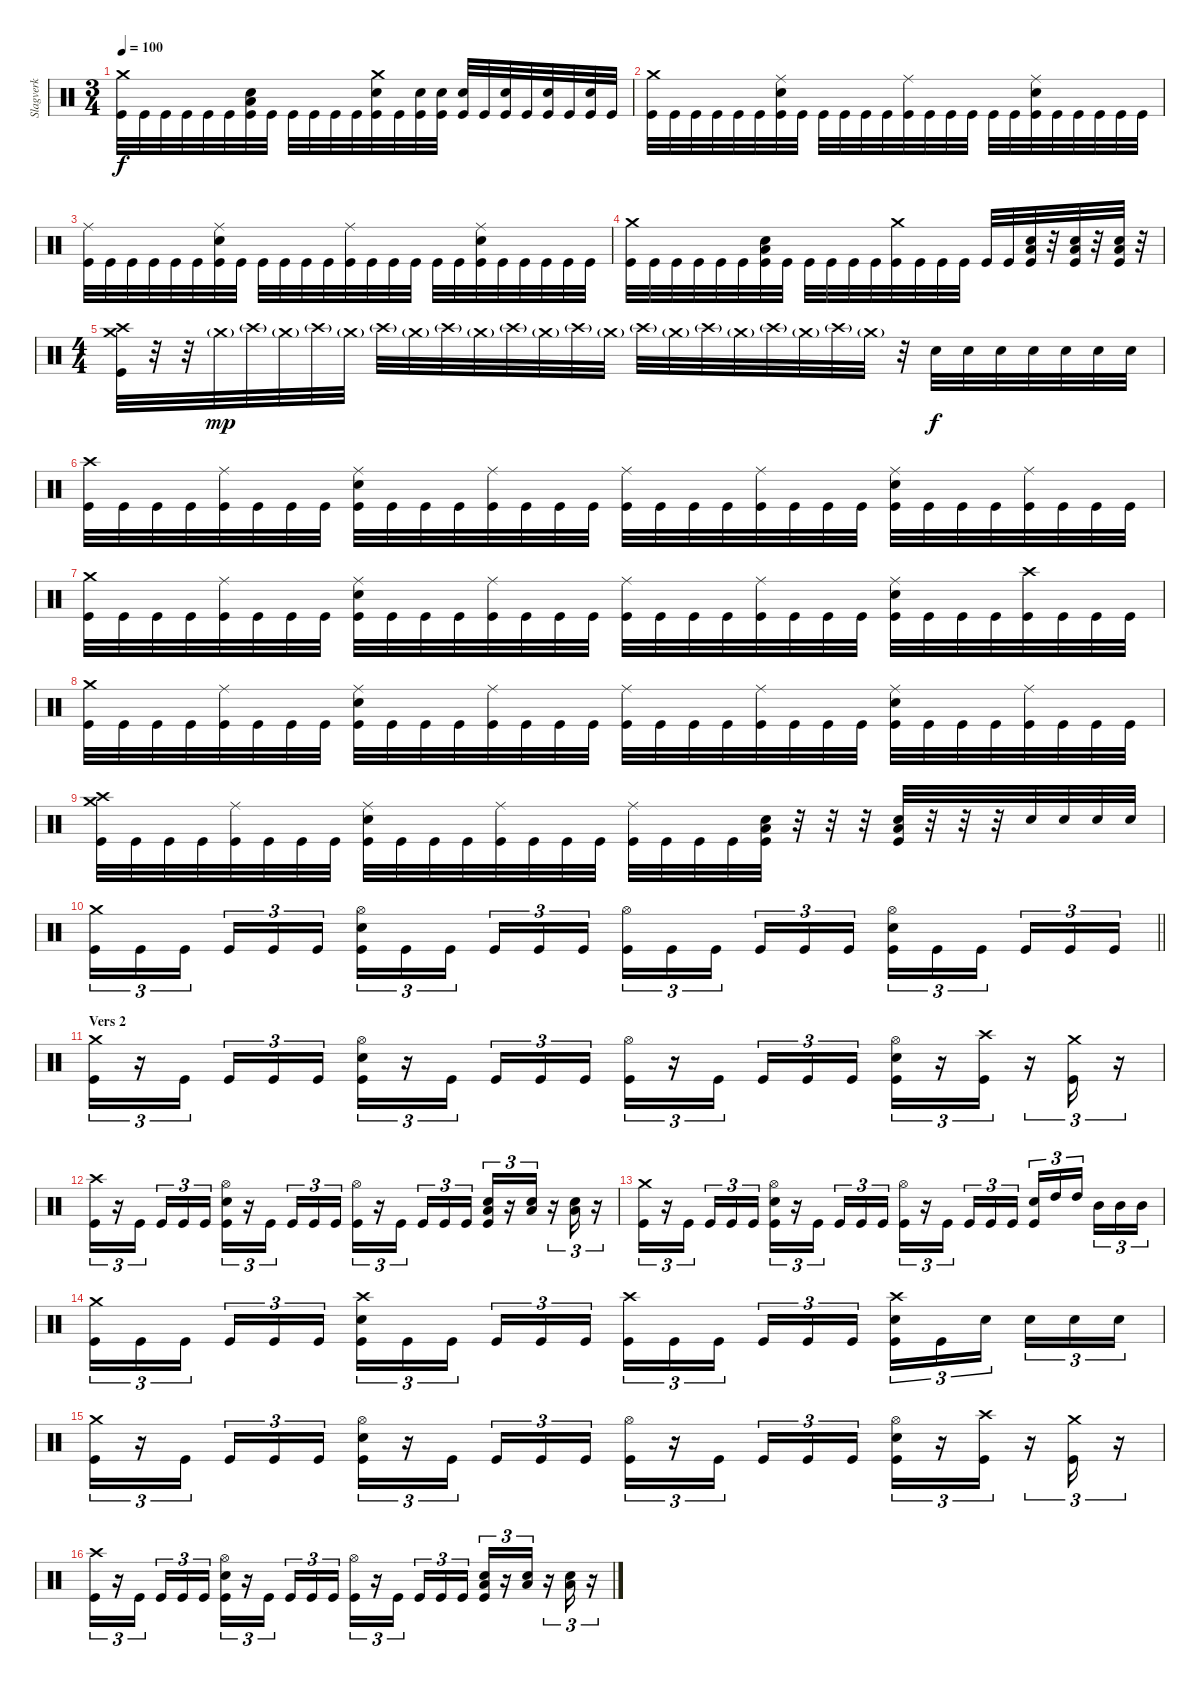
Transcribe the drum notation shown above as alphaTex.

\track ("Slagverk" "Slagverk") {solo instrument percussion}
\staff {score}
\articulation defaults
\ts (3 4)
\tempo 100
\clef neutral
\ks c
("Crash medium (hit)" "Kick (hit)").32{dy f} "Kick (hit)".32 "Kick (hit)".32 "Kick (hit)".32 "Kick (hit)".32 "Kick (hit)".32 ("Low Floor Tom (hit)" "Electric Snare (hit)" "Kick (hit)").32 "Kick (hit)".32 "Kick (hit)".32 "Kick (hit)".32 "Kick (hit)".32 "Kick (hit)".32 ("Crash medium (hit)" "Electric Snare (hit)" "Kick (hit)").32 "Kick (hit)".32 ("Electric Snare (hit)" "Kick (hit)").32 ("Electric Snare (hit)" "Kick (hit)").32 ("Electric Snare (hit)" "Kick (hit)").32 "Kick (hit)".32 ("Electric Snare (hit)" "Kick (hit)").32 "Kick (hit)".32 ("Electric Snare (hit)" "Kick (hit)").32 "Kick (hit)".32 ("Electric Snare (hit)" "Kick (hit)").32 "Kick (hit)".32 |
("Crash medium (hit)" "Kick (hit)").32 "Kick (hit)".32 "Kick (hit)".32 "Kick (hit)".32 "Kick (hit)".32 "Kick (hit)".32 ("Ride (middle)" "Electric Snare (hit)" "Kick (hit)").32 "Kick (hit)".32 "Kick (hit)".32 "Kick (hit)".32 "Kick (hit)".32 "Kick (hit)".32 ("Ride (middle)" "Kick (hit)").32 "Kick (hit)".32 "Kick (hit)".32 "Kick (hit)".32 "Kick (hit)".32 "Kick (hit)".32 ("Ride (middle)" "Electric Snare (hit)" "Kick (hit)").32 "Kick (hit)".32 "Kick (hit)".32 "Kick (hit)".32 "Kick (hit)".32 "Kick (hit)".32 |
("Ride (middle)" "Kick (hit)").32 "Kick (hit)".32 "Kick (hit)".32 "Kick (hit)".32 "Kick (hit)".32 "Kick (hit)".32 ("Ride (middle)" "Electric Snare (hit)" "Kick (hit)").32 "Kick (hit)".32 "Kick (hit)".32 "Kick (hit)".32 "Kick (hit)".32 "Kick (hit)".32 ("Ride (middle)" "Kick (hit)").32 "Kick (hit)".32 "Kick (hit)".32 "Kick (hit)".32 "Kick (hit)".32 "Kick (hit)".32 ("Ride (middle)" "Electric Snare (hit)" "Kick (hit)").32 "Kick (hit)".32 "Kick (hit)".32 "Kick (hit)".32 "Kick (hit)".32 "Kick (hit)".32 |
("Crash medium (hit)" "Kick (hit)").32 "Kick (hit)".32 "Kick (hit)".32 "Kick (hit)".32 "Kick (hit)".32 "Kick (hit)".32 ("Low Floor Tom (hit)" "Electric Snare (hit)" "Kick (hit)").32 "Kick (hit)".32 "Kick (hit)".32 "Kick (hit)".32 "Kick (hit)".32 "Kick (hit)".32 ("Crash medium (hit)" "Kick (hit)").32 "Kick (hit)".32 "Kick (hit)".32 "Kick (hit)".32 "Kick (hit)".32 "Kick (hit)".32 ("Low Floor Tom (hit)" "Electric Snare (hit)" "Kick (hit)").32 r.32 ("Low Floor Tom (hit)" "Electric Snare (hit)" "Kick (hit)").32 r.32 ("Low Floor Tom (hit)" "Electric Snare (hit)" "Kick (hit)").32 r.32 |
\ts (4 4)
("Crash medium (hit)" "Crash high (hit)" "Kick (hit)").32 r.32 r.32 "Crash medium (hit)"{g}.32{dy mp} "Crash high (hit)"{g}.32 "Crash medium (hit)"{g}.32 "Crash high (hit)"{g}.32 "Crash medium (hit)"{g}.32 "Crash high (hit)"{g}.32 "Crash medium (hit)"{g}.32 "Crash high (hit)"{g}.32 "Crash medium (hit)"{g}.32 "Crash high (hit)"{g}.32 "Crash medium (hit)"{g}.32 "Crash high (hit)"{g}.32 "Crash medium (hit)"{g}.32 "Crash high (hit)"{g}.32 "Crash medium (hit)"{g}.32 "Crash high (hit)"{g}.32 "Crash medium (hit)"{g}.32 "Crash high (hit)"{g}.32 "Crash medium (hit)"{g}.32 "Crash high (hit)"{g}.32 "Crash medium (hit)"{g}.32 r.32 "Snare (hit) 2".32{dy f} "Snare (hit) 2".32 "Snare (hit) 2".32 "Snare (hit) 2".32 "Snare (hit) 2".32 "Snare (hit) 2".32 "Snare (hit) 2".32 |
("Crash high (hit)" "Kick (hit)").32 "Kick (hit)".32 "Kick (hit)".32 "Kick (hit)".32 ("Ride (middle)" "Kick (hit)").32 "Kick (hit)".32 "Kick (hit)".32 "Kick (hit)".32 ("Ride (middle)" "Electric Snare (hit)" "Kick (hit)").32 "Kick (hit)".32 "Kick (hit)".32 "Kick (hit)".32 ("Ride (middle)" "Kick (hit)").32 "Kick (hit)".32 "Kick (hit)".32 "Kick (hit)".32 ("Ride (middle)" "Kick (hit)").32 "Kick (hit)".32 "Kick (hit)".32 "Kick (hit)".32 ("Ride (middle)" "Kick (hit)").32 "Kick (hit)".32 "Kick (hit)".32 "Kick (hit)".32 ("Ride (middle)" "Electric Snare (hit)" "Kick (hit)").32 "Kick (hit)".32 "Kick (hit)".32 "Kick (hit)".32 ("Ride (middle)" "Kick (hit)").32 "Kick (hit)".32 "Kick (hit)".32 "Kick (hit)".32 |
("Crash medium (hit)" "Kick (hit)").32 "Kick (hit)".32 "Kick (hit)".32 "Kick (hit)".32 ("Ride (middle)" "Kick (hit)").32 "Kick (hit)".32 "Kick (hit)".32 "Kick (hit)".32 ("Ride (middle)" "Electric Snare (hit)" "Kick (hit)").32 "Kick (hit)".32 "Kick (hit)".32 "Kick (hit)".32 ("Ride (middle)" "Kick (hit)").32 "Kick (hit)".32 "Kick (hit)".32 "Kick (hit)".32 ("Ride (middle)" "Kick (hit)").32 "Kick (hit)".32 "Kick (hit)".32 "Kick (hit)".32 ("Ride (middle)" "Kick (hit)").32 "Kick (hit)".32 "Kick (hit)".32 "Kick (hit)".32 ("Ride (middle)" "Electric Snare (hit)" "Kick (hit)").32 "Kick (hit)".32 "Kick (hit)".32 "Kick (hit)".32 ("Crash high (hit)" "Kick (hit)").32 "Kick (hit)".32 "Kick (hit)".32 "Kick (hit)".32 |
("Crash medium (hit)" "Kick (hit)").32 "Kick (hit)".32 "Kick (hit)".32 "Kick (hit)".32 ("Ride (middle)" "Kick (hit)").32 "Kick (hit)".32 "Kick (hit)".32 "Kick (hit)".32 ("Ride (middle)" "Electric Snare (hit)" "Kick (hit)").32 "Kick (hit)".32 "Kick (hit)".32 "Kick (hit)".32 ("Ride (middle)" "Kick (hit)").32 "Kick (hit)".32 "Kick (hit)".32 "Kick (hit)".32 ("Ride (middle)" "Kick (hit)").32 "Kick (hit)".32 "Kick (hit)".32 "Kick (hit)".32 ("Ride (middle)" "Kick (hit)").32 "Kick (hit)".32 "Kick (hit)".32 "Kick (hit)".32 ("Ride (middle)" "Electric Snare (hit)" "Kick (hit)").32 "Kick (hit)".32 "Kick (hit)".32 "Kick (hit)".32 ("Ride (middle)" "Kick (hit)").32 "Kick (hit)".32 "Kick (hit)".32 "Kick (hit)".32 |
("Crash high (hit)" "Crash medium (hit)" "Kick (hit)").32 "Kick (hit)".32 "Kick (hit)".32 "Kick (hit)".32 ("Ride (middle)" "Kick (hit)").32 "Kick (hit)".32 "Kick (hit)".32 "Kick (hit)".32 ("Ride (middle)" "Electric Snare (hit)" "Kick (hit)").32 "Kick (hit)".32 "Kick (hit)".32 "Kick (hit)".32 ("Ride (middle)" "Kick (hit)").32 "Kick (hit)".32 "Kick (hit)".32 "Kick (hit)".32 ("Ride (middle)" "Kick (hit)").32 "Kick (hit)".32 "Kick (hit)".32 "Kick (hit)".32 ("Low Floor Tom (hit)" "Electric Snare (hit)" "Kick (hit)").32 r.32 r.32 r.32 ("Low Floor Tom (hit)" "Electric Snare (hit)" "Kick (hit)").32 r.32 r.32 r.32 "Electric Snare (hit)".32 "Electric Snare (hit)".32 "Electric Snare (hit)".32 "Electric Snare (hit)".32 |
\barLineRight lightlight
("Crash medium (hit)" "Kick (hit)").16{tu (3 2)} "Kick (hit)".16{tu (3 2)} "Kick (hit)".16{tu (3 2) beam splitsecondary} "Kick (hit)".16{tu (3 2)} "Kick (hit)".16{tu (3 2)} "Kick (hit)".16{tu (3 2)} ("Hi-Hat (open)" "Electric Snare (hit)" "Kick (hit)").16{tu (3 2)} "Kick (hit)".16{tu (3 2)} "Kick (hit)".16{tu (3 2) beam splitsecondary} "Kick (hit)".16{tu (3 2)} "Kick (hit)".16{tu (3 2)} "Kick (hit)".16{tu (3 2)} ("Hi-Hat (open)" "Kick (hit)").16{tu (3 2)} "Kick (hit)".16{tu (3 2)} "Kick (hit)".16{tu (3 2) beam splitsecondary} "Kick (hit)".16{tu (3 2)} "Kick (hit)".16{tu (3 2)} "Kick (hit)".16{tu (3 2)} ("Hi-Hat (open)" "Electric Snare (hit)" "Kick (hit)").16{tu (3 2)} "Kick (hit)".16{tu (3 2)} "Kick (hit)".16{tu (3 2) beam splitsecondary} "Kick (hit)".16{tu (3 2)} "Kick (hit)".16{tu (3 2)} "Kick (hit)".16{tu (3 2)} |
\section ("" "Vers 2")
("Crash medium (hit)" "Kick (hit)").16{tu (3 2)} r.16{tu (3 2)} "Kick (hit)".16{tu (3 2) beam splitsecondary} "Kick (hit)".16{tu (3 2)} "Kick (hit)".16{tu (3 2)} "Kick (hit)".16{tu (3 2)} ("Hi-Hat (open)" "Electric Snare (hit)" "Kick (hit)").16{tu (3 2)} r.16{tu (3 2)} "Kick (hit)".16{tu (3 2) beam splitsecondary} "Kick (hit)".16{tu (3 2)} "Kick (hit)".16{tu (3 2)} "Kick (hit)".16{tu (3 2)} ("Hi-Hat (open)" "Kick (hit)").16{tu (3 2)} r.16{tu (3 2)} "Kick (hit)".16{tu (3 2) beam splitsecondary} "Kick (hit)".16{tu (3 2)} "Kick (hit)".16{tu (3 2)} "Kick (hit)".16{tu (3 2)} ("Hi-Hat (open)" "Electric Snare (hit)" "Kick (hit)").16{tu (3 2)} r.16{tu (3 2)} ("Crash high (hit)" "Kick (hit)").16{tu (3 2)} r.16{tu (3 2)} ("Crash medium (hit)" "Kick (hit)").16{tu (3 2)} r.16{tu (3 2)} |
("Crash high (hit)" "Kick (hit)").16{tu (3 2)} r.16{tu (3 2)} "Kick (hit)".16{tu (3 2) beam splitsecondary} "Kick (hit)".16{tu (3 2)} "Kick (hit)".16{tu (3 2)} "Kick (hit)".16{tu (3 2)} ("Hi-Hat (open)" "Electric Snare (hit)" "Kick (hit)").16{tu (3 2)} r.16{tu (3 2)} "Kick (hit)".16{tu (3 2) beam splitsecondary} "Kick (hit)".16{tu (3 2)} "Kick (hit)".16{tu (3 2)} "Kick (hit)".16{tu (3 2)} ("Hi-Hat (open)" "Kick (hit)").16{tu (3 2)} r.16{tu (3 2)} "Kick (hit)".16{tu (3 2) beam splitsecondary} "Kick (hit)".16{tu (3 2)} "Kick (hit)".16{tu (3 2)} "Kick (hit)".16{tu (3 2)} ("Low Floor Tom (hit)" "Electric Snare (hit)" "Kick (hit)").16{tu (3 2)} r.16{tu (3 2)} ("Low Floor Tom (hit)" "Electric Snare (hit)").16{tu (3 2)} r.16{tu (3 2)} ("Low Floor Tom (hit)" "Electric Snare (hit)").16{tu (3 2)} r.16{tu (3 2)} |
("Crash medium (hit)" "Kick (hit)").16{tu (3 2)} r.16{tu (3 2)} "Kick (hit)".16{tu (3 2) beam splitsecondary} "Kick (hit)".16{tu (3 2)} "Kick (hit)".16{tu (3 2)} "Kick (hit)".16{tu (3 2)} ("Hi-Hat (open)" "Electric Snare (hit)" "Kick (hit)").16{tu (3 2)} r.16{tu (3 2)} "Kick (hit)".16{tu (3 2) beam splitsecondary} "Kick (hit)".16{tu (3 2)} "Kick (hit)".16{tu (3 2)} "Kick (hit)".16{tu (3 2)} ("Hi-Hat (open)" "Kick (hit)").16{tu (3 2)} r.16{tu (3 2)} "Kick (hit)".16{tu (3 2) beam splitsecondary} "Kick (hit)".16{tu (3 2)} "Kick (hit)".16{tu (3 2)} "Kick (hit)".16{tu (3 2)} ("Electric Snare (hit)" "Kick (hit)").16{tu (3 2)} "High Tom (hit)".16{tu (3 2)} "High Tom (hit)".16{tu (3 2) beam splitsecondary} "Mid Tom (hit)".16{tu (3 2)} "Mid Tom (hit)".16{tu (3 2)} "Mid Tom (hit)".16{tu (3 2)} |
("Crash medium (hit)" "Kick (hit)").16{tu (3 2)} "Kick (hit)".16{tu (3 2)} "Kick (hit)".16{tu (3 2) beam splitsecondary} "Kick (hit)".16{tu (3 2)} "Kick (hit)".16{tu (3 2)} "Kick (hit)".16{tu (3 2)} ("Crash high (hit)" "Electric Snare (hit)" "Kick (hit)").16{tu (3 2)} "Kick (hit)".16{tu (3 2)} "Kick (hit)".16{tu (3 2) beam splitsecondary} "Kick (hit)".16{tu (3 2)} "Kick (hit)".16{tu (3 2)} "Kick (hit)".16{tu (3 2)} ("Crash high (hit)" "Kick (hit)").16{tu (3 2)} "Kick (hit)".16{tu (3 2)} "Kick (hit)".16{tu (3 2) beam splitsecondary} "Kick (hit)".16{tu (3 2)} "Kick (hit)".16{tu (3 2)} "Kick (hit)".16{tu (3 2)} ("Crash high (hit)" "Electric Snare (hit)" "Kick (hit)").16{tu (3 2)} "Kick (hit)".16{tu (3 2)} "Snare (hit) 2".16{tu (3 2) beam splitsecondary} "Snare (hit) 2".16{tu (3 2)} "Snare (hit) 2".16{tu (3 2)} "Snare (hit) 2".16{tu (3 2)} |
("Crash medium (hit)" "Kick (hit)").16{tu (3 2)} r.16{tu (3 2)} "Kick (hit)".16{tu (3 2) beam splitsecondary} "Kick (hit)".16{tu (3 2)} "Kick (hit)".16{tu (3 2)} "Kick (hit)".16{tu (3 2)} ("Hi-Hat (open)" "Electric Snare (hit)" "Kick (hit)").16{tu (3 2)} r.16{tu (3 2)} "Kick (hit)".16{tu (3 2) beam splitsecondary} "Kick (hit)".16{tu (3 2)} "Kick (hit)".16{tu (3 2)} "Kick (hit)".16{tu (3 2)} ("Hi-Hat (open)" "Kick (hit)").16{tu (3 2)} r.16{tu (3 2)} "Kick (hit)".16{tu (3 2) beam splitsecondary} "Kick (hit)".16{tu (3 2)} "Kick (hit)".16{tu (3 2)} "Kick (hit)".16{tu (3 2)} ("Hi-Hat (open)" "Electric Snare (hit)" "Kick (hit)").16{tu (3 2)} r.16{tu (3 2)} ("Crash high (hit)" "Kick (hit)").16{tu (3 2)} r.16{tu (3 2)} ("Crash medium (hit)" "Kick (hit)").16{tu (3 2)} r.16{tu (3 2)} |
("Crash high (hit)" "Kick (hit)").16{tu (3 2)} r.16{tu (3 2)} "Kick (hit)".16{tu (3 2) beam splitsecondary} "Kick (hit)".16{tu (3 2)} "Kick (hit)".16{tu (3 2)} "Kick (hit)".16{tu (3 2)} ("Hi-Hat (open)" "Electric Snare (hit)" "Kick (hit)").16{tu (3 2)} r.16{tu (3 2)} "Kick (hit)".16{tu (3 2) beam splitsecondary} "Kick (hit)".16{tu (3 2)} "Kick (hit)".16{tu (3 2)} "Kick (hit)".16{tu (3 2)} ("Hi-Hat (open)" "Kick (hit)").16{tu (3 2)} r.16{tu (3 2)} "Kick (hit)".16{tu (3 2) beam splitsecondary} "Kick (hit)".16{tu (3 2)} "Kick (hit)".16{tu (3 2)} "Kick (hit)".16{tu (3 2)} ("Low Floor Tom (hit)" "Electric Snare (hit)" "Kick (hit)").16{tu (3 2)} r.16{tu (3 2)} ("Low Floor Tom (hit)" "Electric Snare (hit)").16{tu (3 2)} r.16{tu (3 2)} ("Low Floor Tom (hit)" "Electric Snare (hit)").16{tu (3 2)} r.16{tu (3 2)}
